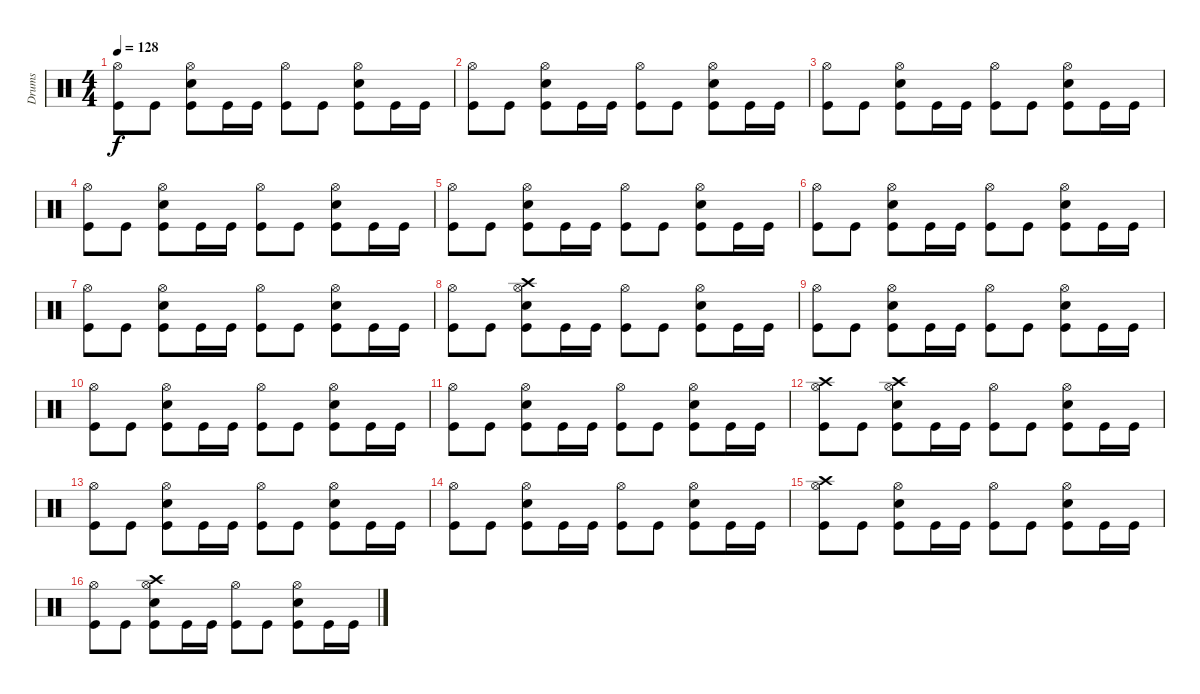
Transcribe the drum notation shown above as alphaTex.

\track ("Drums" "Drums") {instrument percussion}
\staff {score}
\articulation defaults
\ts (4 4)
\tempo 128
\clef neutral
\ks c
("Hi-Hat (open)" "Kick (hit)").8{dy f} "Kick (hit)".8 ("Hi-Hat (open)" "Snare (hit) 2" "Kick (hit)").8 "Kick (hit)".16 "Kick (hit)".16 ("Hi-Hat (open)" "Kick (hit)").8 "Kick (hit)".8 ("Hi-Hat (open)" "Snare (hit) 2" "Kick (hit)").8 "Kick (hit)".16 "Kick (hit)".16 |
("Hi-Hat (open)" "Kick (hit)").8 "Kick (hit)".8 ("Hi-Hat (open)" "Snare (hit) 2" "Kick (hit)").8 "Kick (hit)".16 "Kick (hit)".16 ("Hi-Hat (open)" "Kick (hit)").8 "Kick (hit)".8 ("Hi-Hat (open)" "Snare (hit) 2" "Kick (hit)").8 "Kick (hit)".16 "Kick (hit)".16 |
("Hi-Hat (open)" "Kick (hit)").8 "Kick (hit)".8 ("Hi-Hat (open)" "Snare (hit) 2" "Kick (hit)").8 "Kick (hit)".16 "Kick (hit)".16 ("Hi-Hat (open)" "Kick (hit)").8 "Kick (hit)".8 ("Hi-Hat (open)" "Snare (hit) 2" "Kick (hit)").8 "Kick (hit)".16 "Kick (hit)".16 |
("Hi-Hat (open)" "Kick (hit)").8 "Kick (hit)".8 ("Hi-Hat (open)" "Snare (hit) 2" "Kick (hit)").8 "Kick (hit)".16 "Kick (hit)".16 ("Hi-Hat (open)" "Kick (hit)").8 "Kick (hit)".8 ("Hi-Hat (open)" "Snare (hit) 2" "Kick (hit)").8 "Kick (hit)".16 "Kick (hit)".16 |
("Hi-Hat (open)" "Kick (hit)").8 "Kick (hit)".8 ("Hi-Hat (open)" "Snare (hit) 2" "Kick (hit)").8 "Kick (hit)".16 "Kick (hit)".16 ("Hi-Hat (open)" "Kick (hit)").8 "Kick (hit)".8 ("Hi-Hat (open)" "Snare (hit) 2" "Kick (hit)").8 "Kick (hit)".16 "Kick (hit)".16 |
("Hi-Hat (open)" "Kick (hit)").8 "Kick (hit)".8 ("Hi-Hat (open)" "Snare (hit) 2" "Kick (hit)").8 "Kick (hit)".16 "Kick (hit)".16 ("Hi-Hat (open)" "Kick (hit)").8 "Kick (hit)".8 ("Hi-Hat (open)" "Snare (hit) 2" "Kick (hit)").8 "Kick (hit)".16 "Kick (hit)".16 |
("Hi-Hat (open)" "Kick (hit)").8 "Kick (hit)".8 ("Hi-Hat (open)" "Snare (hit) 2" "Kick (hit)").8 "Kick (hit)".16 "Kick (hit)".16 ("Hi-Hat (open)" "Kick (hit)").8 "Kick (hit)".8 ("Hi-Hat (open)" "Snare (hit) 2" "Kick (hit)").8 "Kick (hit)".16 "Kick (hit)".16 |
\section ("" "")
("Hi-Hat (open)" "Kick (hit)").8 "Kick (hit)".8 ("Crash high (hit)" "Hi-Hat (open)" "Snare (hit) 2" "Kick (hit)").8 "Kick (hit)".16 "Kick (hit)".16 ("Hi-Hat (open)" "Kick (hit)").8 "Kick (hit)".8 ("Hi-Hat (open)" "Snare (hit) 2" "Kick (hit)").8 "Kick (hit)".16 "Kick (hit)".16 |
("Hi-Hat (open)" "Kick (hit)").8 "Kick (hit)".8 ("Hi-Hat (open)" "Snare (hit) 2" "Kick (hit)").8 "Kick (hit)".16 "Kick (hit)".16 ("Hi-Hat (open)" "Kick (hit)").8 "Kick (hit)".8 ("Hi-Hat (open)" "Snare (hit) 2" "Kick (hit)").8 "Kick (hit)".16 "Kick (hit)".16 |
("Hi-Hat (open)" "Kick (hit)").8 "Kick (hit)".8 ("Hi-Hat (open)" "Snare (hit) 2" "Kick (hit)").8 "Kick (hit)".16 "Kick (hit)".16 ("Hi-Hat (open)" "Kick (hit)").8 "Kick (hit)".8 ("Hi-Hat (open)" "Snare (hit) 2" "Kick (hit)").8 "Kick (hit)".16 "Kick (hit)".16 |
("Hi-Hat (open)" "Kick (hit)").8 "Kick (hit)".8 ("Hi-Hat (open)" "Snare (hit) 2" "Kick (hit)").8 "Kick (hit)".16 "Kick (hit)".16 ("Hi-Hat (open)" "Kick (hit)").8 "Kick (hit)".8 ("Hi-Hat (open)" "Snare (hit) 2" "Kick (hit)").8 "Kick (hit)".16 "Kick (hit)".16 |
("Crash high (hit)" "Hi-Hat (open)" "Kick (hit)").8 "Kick (hit)".8 ("Crash high (hit)" "Hi-Hat (open)" "Snare (hit) 2" "Kick (hit)").8 "Kick (hit)".16 "Kick (hit)".16 ("Hi-Hat (open)" "Kick (hit)").8 "Kick (hit)".8 ("Hi-Hat (open)" "Snare (hit) 2" "Kick (hit)").8 "Kick (hit)".16 "Kick (hit)".16 |
("Hi-Hat (open)" "Kick (hit)").8 "Kick (hit)".8 ("Hi-Hat (open)" "Snare (hit) 2" "Kick (hit)").8 "Kick (hit)".16 "Kick (hit)".16 ("Hi-Hat (open)" "Kick (hit)").8 "Kick (hit)".8 ("Hi-Hat (open)" "Snare (hit) 2" "Kick (hit)").8 "Kick (hit)".16 "Kick (hit)".16 |
("Hi-Hat (open)" "Kick (hit)").8 "Kick (hit)".8 ("Hi-Hat (open)" "Snare (hit) 2" "Kick (hit)").8 "Kick (hit)".16 "Kick (hit)".16 ("Hi-Hat (open)" "Kick (hit)").8 "Kick (hit)".8 ("Hi-Hat (open)" "Snare (hit) 2" "Kick (hit)").8 "Kick (hit)".16 "Kick (hit)".16 |
("Crash high (hit)" "Hi-Hat (open)" "Kick (hit)").8 "Kick (hit)".8 ("Hi-Hat (open)" "Snare (hit) 2" "Kick (hit)").8 "Kick (hit)".16 "Kick (hit)".16 ("Hi-Hat (open)" "Kick (hit)").8 "Kick (hit)".8 ("Hi-Hat (open)" "Snare (hit) 2" "Kick (hit)").8 "Kick (hit)".16 "Kick (hit)".16 |
("Hi-Hat (open)" "Kick (hit)").8 "Kick (hit)".8 ("Crash high (hit)" "Hi-Hat (open)" "Snare (hit) 2" "Kick (hit)").8 "Kick (hit)".16 "Kick (hit)".16 ("Hi-Hat (open)" "Kick (hit)").8 "Kick (hit)".8 ("Hi-Hat (open)" "Snare (hit) 2" "Kick (hit)").8 "Kick (hit)".16 "Kick (hit)".16
